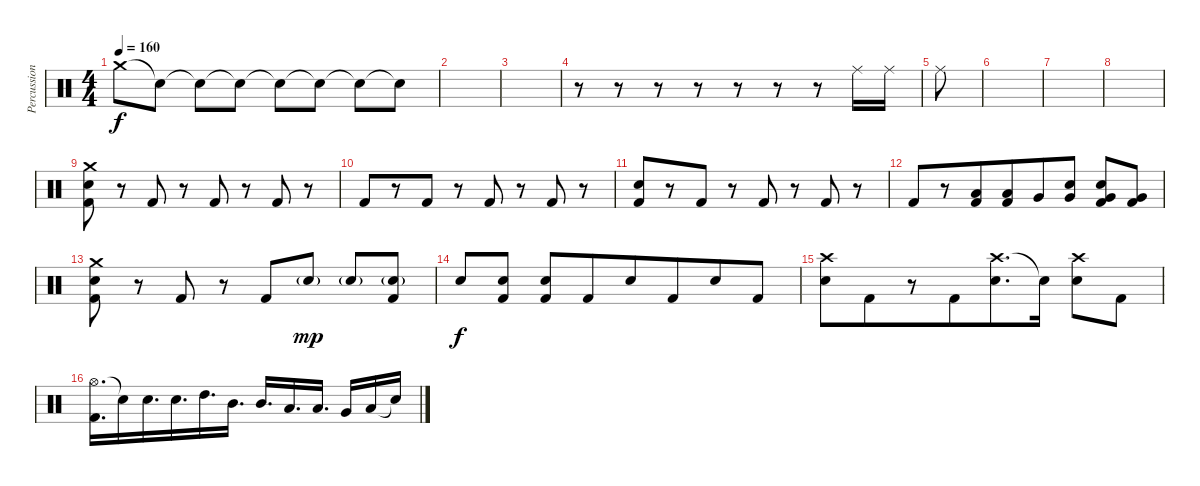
\track ("Percussion" "Percussion") {instrument percussion}
\staff {score}
\articulation defaults
\ts (4 4)
\tempo 160
\clef neutral
\ks c "Crash medium (hit)".8{dy f} "Snare (hit)"{t}.8 "Snare (hit)"{t}.8 "Snare (hit)"{t}.8 "Snare (hit)"{t}.8{beam merge} "Snare (hit)"{t}.8 "Snare (hit)"{t}.8 "Snare (hit)"{t}.8
|
|
|
r.8 r.8 r.8 r.8 r.8{beam merge} r.8{beam merge} r.8 "Ride (middle)".16{beam merge} "Ride (middle)".16 |
"Ride (middle)".8 |
|
|
|
("Crash medium (hit)" "Electric Snare (hit)" "Kick (hit) 2").8 r.8 "Kick (hit) 2".8 r.8 "Kick (hit) 2".8 r.8 "Kick (hit) 2".8{beam merge} r.8 |
"Kick (hit) 2".8{beam merge} r.8 "Kick (hit) 2".8 r.8 "Kick (hit) 2".8 r.8{beam merge} "Kick (hit) 2".8{beam merge} r.8 |
("Electric Snare (hit)" "Kick (hit) 2").8{beam merge} r.8 "Kick (hit) 2".8 r.8 "Kick (hit) 2".8 r.8{beam merge} "Kick (hit) 2".8{beam merge} r.8 |
"Kick (hit) 2".8{beam merge} r.8 ("Low Floor Tom (hit)" "Kick (hit) 2").8 ("Low Floor Tom (hit)" "Kick (hit) 2").8{beam merge} "Very Low Tom (hit)".8 ("Very Low Tom (hit)" "Electric Snare (hit)").8 ("Very Low Tom (hit)" "Electric Snare (hit)" "Kick (hit) 2").8 ("Very Low Tom (hit)" "Kick (hit) 2").8 |
("Crash medium (hit)" "Electric Snare (hit)" "Kick (hit) 2").8 r.8 "Kick (hit) 2".8 r.8 "Kick (hit) 2".8 "Electric Snare (hit)"{g}.8{dy mp} "Electric Snare (hit)"{g}.8{beam merge} ("Electric Snare (hit)"{g} "Kick (hit) 2").8 |
"Electric Snare (hit)".8{dy f} ("Electric Snare (hit)" "Kick (hit) 2").8 ("Electric Snare (hit)" "Kick (hit) 2").8{beam merge} "Kick (hit) 2".8{beam merge} "Electric Snare (hit)".8 "Kick (hit) 2".8{beam merge} "Electric Snare (hit)".8{beam merge} "Kick (hit) 2".8 |
("Crash high (hit)" "Electric Snare (hit)").8{beam merge} "Kick (hit) 2".8{beam merge} r.8 "Kick (hit) 2".8{beam merge} ("Crash high (hit)" "Electric Snare (hit)").8{d} "Electric Snare (hit)"{t}.16 ("Crash high (hit)" "Electric Snare (hit)").8 "Kick (hit) 2".8 |
("Hi-Hat (open)" "Kick (hit) 2").16{d beam merge} "Electric Snare (hit)"{t}.16{beam merge} "Electric Snare (hit)".16{d beam merge} "Electric Snare (hit)".16{d beam merge} "High Tom (hit)".16{d} "Mid Tom (hit)".16{d} "Mid Tom (hit)".16{d} "Low Tom (hit)".16{d} "Low Tom (hit)".16{d} "Very Low Tom (hit)".16{beam merge} "Low Floor Tom (hit)".16 "Snare (hit)"{t}.16
